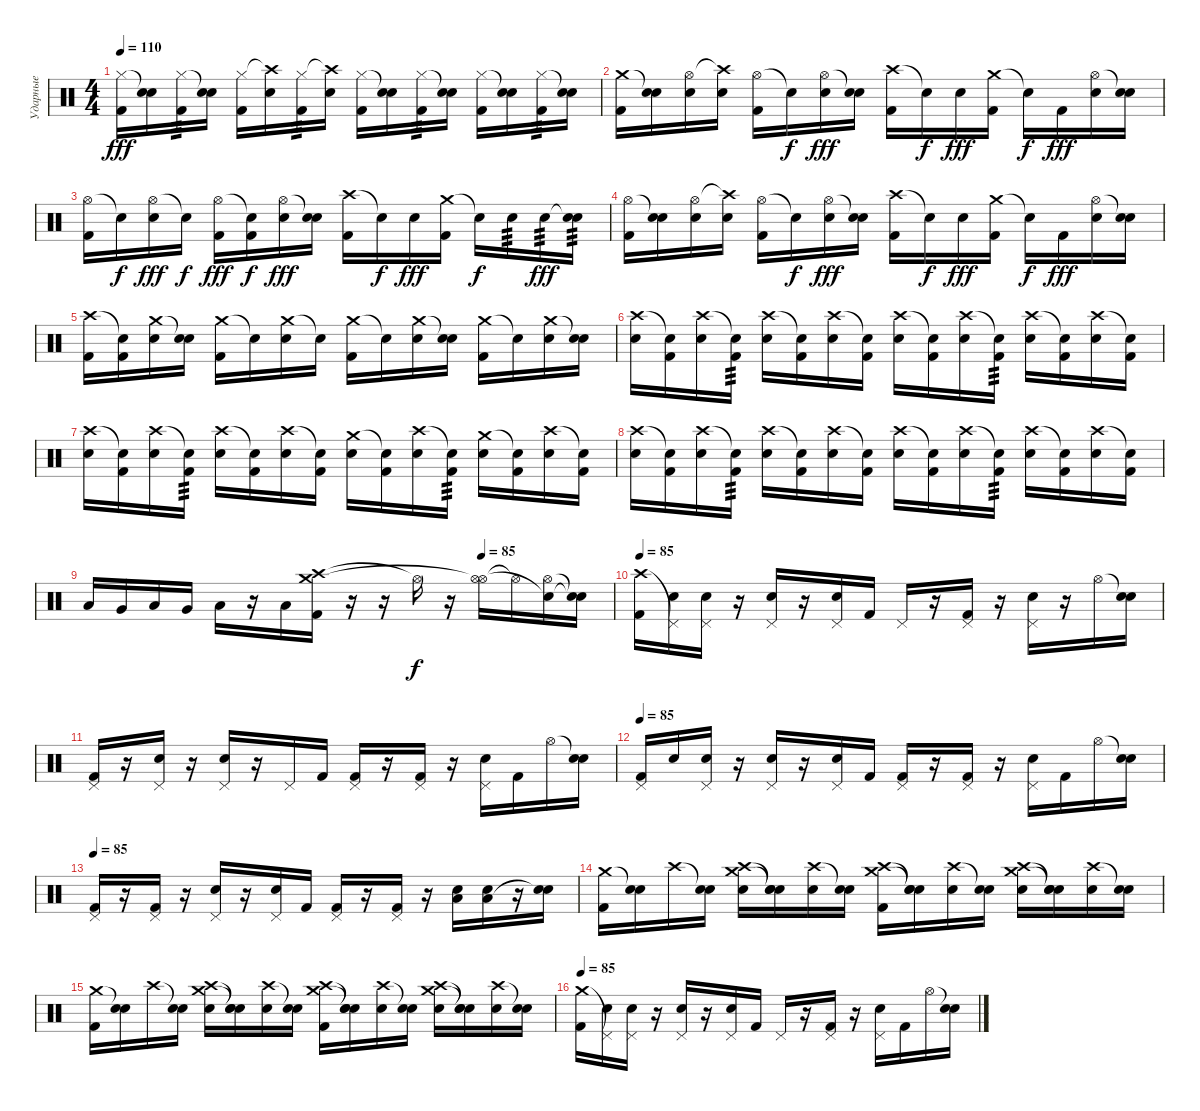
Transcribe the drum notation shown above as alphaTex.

\track ("Ударные" "Ударные") {instrument percussion}
\staff {score}
\articulation defaults
\ts (4 4)
\tempo 110
\clef neutral
\ks c
("Hi-Hat (closed)" "Kick (hit) 2").16{dy fff} ("Snare (hit)"{t} "Electric Snare (hit)").16 ("Hi-Hat (closed)" "Kick (hit) 2").16{tp 3} ("Snare (hit)"{t} "Electric Snare (hit)").16 ("Hi-Hat (closed)" "Kick (hit) 2").16 ("Crash high (hit)"{t} "Electric Snare (hit)").16 ("Hi-Hat (closed)" "Kick (hit) 2").16{tp 3} ("Crash high (hit)"{t} "Electric Snare (hit)").16 ("Hi-Hat (closed)" "Kick (hit) 2").16 ("Snare (hit)"{t} "Electric Snare (hit)").16 ("Hi-Hat (closed)" "Kick (hit) 2").16{tp 3} ("Snare (hit)"{t} "Electric Snare (hit)").16 ("Hi-Hat (closed)" "Kick (hit) 2").16 ("Snare (hit)"{t} "Electric Snare (hit)").16 ("Hi-Hat (closed)" "Kick (hit) 2").16{tp 3} ("Snare (hit)"{t} "Electric Snare (hit)").16 |
("Crash medium (hit)" "Kick (hit) 2").16 ("Snare (hit)"{t} "Snare (hit)").16 ("Hi-Hat (open)" "Electric Snare (hit)").16 ("Crash high (hit)"{t} "Snare (hit)").16 ("Hi-Hat (open)" "Kick (hit) 2").16 "Snare (hit)"{t}.16{dy f} ("Hi-Hat (open)" "Electric Snare (hit)").16{dy fff} ("Snare (hit)"{t} "Snare (hit)").16 ("Crash high (hit)" "Kick (hit) 2").16 "Snare (hit)"{t}.16{dy f} "Electric Snare (hit)".16{dy fff} ("Crash medium (hit)" "Kick (hit) 2").16 "Snare (hit)"{t}.16{dy f} "Kick (hit) 2".16{dy fff} ("Hi-Hat (open)" "Electric Snare (hit)").16 ("Snare (hit)"{t} "Snare (hit)").16 |
("Hi-Hat (open)" "Kick (hit) 2").16 "Snare (hit)"{t}.16{dy f} ("Hi-Hat (open)" "Electric Snare (hit)").16{dy fff} "Snare (hit)"{t}.16{dy f} ("Hi-Hat (open)" "Kick (hit) 2").16{dy fff} ("Snare (hit)"{t} "Kick (hit) 2").16{dy f} ("Hi-Hat (open)" "Electric Snare (hit)").16{dy fff} ("Snare (hit)"{t} "Snare (hit)").16 ("Crash high (hit)" "Kick (hit) 2").16 "Snare (hit)"{t}.16{dy f} "Electric Snare (hit)".16{dy fff} ("Crash medium (hit)" "Kick (hit) 2").16 "Snare (hit)"{t}.16{dy f} "Electric Snare (hit)".16{tp 3} "Electric Snare (hit)".16{tp 3 dy fff} ("Snare (hit)"{t} "Electric Snare (hit)").16{tp 3} |
("Hi-Hat (open)" "Kick (hit) 2").16 ("Snare (hit)"{t} "Snare (hit)").16 ("Hi-Hat (open)" "Electric Snare (hit)").16 ("Crash high (hit)"{t} "Snare (hit)").16 ("Hi-Hat (open)" "Kick (hit) 2").16 "Snare (hit)"{t}.16{dy f} ("Hi-Hat (open)" "Electric Snare (hit)").16{dy fff} ("Snare (hit)"{t} "Snare (hit)").16 ("Crash high (hit)" "Kick (hit) 2").16 "Snare (hit)"{t}.16{dy f} "Electric Snare (hit)".16{dy fff} ("Crash medium (hit)" "Kick (hit) 2").16 "Snare (hit)"{t}.16{dy f} "Kick (hit) 2".16{dy fff} ("Hi-Hat (open)" "Electric Snare (hit)").16 ("Snare (hit)"{t} "Snare (hit)").16 |
("Crash high (hit)" "Kick (hit) 2").16 ("Snare (hit)"{t} "Kick (hit) 2").16 ("Crash medium (hit)" "Electric Snare (hit)").16 ("Snare (hit)"{t} "Electric Snare (hit)").16 ("Crash medium (hit)" "Kick (hit) 2").16 "Snare (hit)"{t}.16 ("Crash medium (hit)" "Electric Snare (hit)").16 "Snare (hit)"{t}.16 ("Crash medium (hit)" "Kick (hit) 2").16 "Snare (hit)"{t}.16 ("Crash medium (hit)" "Electric Snare (hit)").16 ("Snare (hit)"{t} "Electric Snare (hit)").16 ("Crash medium (hit)" "Kick (hit) 2").16 "Snare (hit)"{t}.16 ("Crash medium (hit)" "Electric Snare (hit)").16 ("Snare (hit)"{t} "Snare (hit)").16 |
("Crash high (hit)" "Electric Snare (hit)").16 ("Snare (hit)"{t} "Kick (hit) 2").16 ("Crash high (hit)" "Electric Snare (hit)").16 ("Snare (hit)"{t} "Kick (hit) 2").16{tp 3} ("Crash high (hit)" "Electric Snare (hit)").16 ("Snare (hit)"{t} "Kick (hit) 2").16 ("Crash high (hit)" "Electric Snare (hit)").16 ("Snare (hit)"{t} "Kick (hit) 2").16 ("Crash high (hit)" "Electric Snare (hit)").16 ("Snare (hit)"{t} "Kick (hit) 2").16 ("Crash high (hit)" "Electric Snare (hit)").16 ("Snare (hit)"{t} "Kick (hit) 2").16{tp 3} ("Crash high (hit)" "Electric Snare (hit)").16 ("Snare (hit)"{t} "Kick (hit) 2").16 ("Crash high (hit)" "Electric Snare (hit)").16 ("Snare (hit)"{t} "Kick (hit) 2").16 |
("Crash high (hit)" "Electric Snare (hit)").16 ("Snare (hit)"{t} "Kick (hit) 2").16 ("Crash high (hit)" "Electric Snare (hit)").16 ("Snare (hit)"{t} "Kick (hit) 2").16{tp 3} ("Crash high (hit)" "Electric Snare (hit)").16 ("Snare (hit)"{t} "Kick (hit) 2").16 ("Crash high (hit)" "Electric Snare (hit)").16 ("Snare (hit)"{t} "Kick (hit) 2").16 ("Crash medium (hit)" "Electric Snare (hit)").16 ("Snare (hit)"{t} "Kick (hit) 2").16 ("Crash high (hit)" "Electric Snare (hit)").16 ("Snare (hit)"{t} "Kick (hit) 2").16{tp 3} ("Crash medium (hit)" "Electric Snare (hit)").16 ("Snare (hit)"{t} "Kick (hit) 2").16 ("Crash high (hit)" "Electric Snare (hit)").16 ("Snare (hit)"{t} "Kick (hit) 2").16 |
("Crash high (hit)" "Electric Snare (hit)").16 ("Snare (hit)"{t} "Kick (hit) 2").16 ("Crash high (hit)" "Electric Snare (hit)").16 ("Snare (hit)"{t} "Kick (hit) 2").16{tp 3} ("Crash high (hit)" "Electric Snare (hit)").16 ("Snare (hit)"{t} "Kick (hit) 2").16 ("Crash high (hit)" "Electric Snare (hit)").16 ("Snare (hit)"{t} "Kick (hit) 2").16 ("Crash high (hit)" "Electric Snare (hit)").16 ("Snare (hit)"{t} "Kick (hit) 2").16 ("Crash high (hit)" "Electric Snare (hit)").16 ("Snare (hit)"{t} "Kick (hit) 2").16{tp 3} ("Crash high (hit)" "Electric Snare (hit)").16 ("Snare (hit)"{t} "Kick (hit) 2").16 ("Crash high (hit)" "Electric Snare (hit)").16 ("Snare (hit)"{t} "Kick (hit) 2").16 |
\tempo (85 0.75)
"Low Tom (hit)".16 "Very Low Tom (hit)".16 "Low Floor Tom (hit)".16 "Very Low Tom (hit)".16 "Low Floor Tom (hit)".16 r.16 "Low Floor Tom (hit)".16 ("Crash high (hit)" "Crash medium (hit)" "Kick (hit) 2").16 r.16 r.16 "Hi-Hat (open)"{t}.16{dy f} r.16 ("Hi-Hat (open)" "Hi-Hat (open)"{t}).16 "Hi-Hat (open)"{t}.16 ("Hi-Hat (open)" "Snare (hit)"{t}).16 ("Snare (hit)"{t} "Snare (hit)"{t}).16 |
\tempo 85
("Crash high (hit)" "Kick (hit) 2").16 ("Pedal Hi-Hat (hit)"{t} "Snare (hit)").16 ("Pedal Hi-Hat (hit)" "Snare (hit)").16 r.16 ("Pedal Hi-Hat (hit)" "Electric Snare (hit)").16 r.16 ("Pedal Hi-Hat (hit)" "Snare (hit)").16 "Kick (hit) 2".16 "Pedal Hi-Hat (hit)".16 r.16 ("Pedal Hi-Hat (hit)" "Kick (hit) 2").16 r.16 ("Pedal Hi-Hat (hit)" "Electric Snare (hit)").16 r.16 "Hi-Hat (open)".16 ("Snare (hit)"{t} "Snare (hit)").16 |
("Pedal Hi-Hat (hit)" "Kick (hit) 2").16 r.16 ("Pedal Hi-Hat (hit)" "Snare (hit)").16 r.16 ("Pedal Hi-Hat (hit)" "Electric Snare (hit)").16 r.16 "Pedal Hi-Hat (hit)".16 "Kick (hit) 2".16 ("Pedal Hi-Hat (hit)" "Kick (hit) 2").16 r.16 ("Pedal Hi-Hat (hit)" "Kick (hit) 2").16 r.16 ("Pedal Hi-Hat (hit)" "Electric Snare (hit)").16 "Kick (hit) 2".16 "Hi-Hat (open)".16 ("Snare (hit)"{t} "Snare (hit)").16 |
\tempo 85
("Pedal Hi-Hat (hit)" "Kick (hit) 2").16 "Snare (hit)".16 ("Pedal Hi-Hat (hit)" "Snare (hit)").16 r.16 ("Pedal Hi-Hat (hit)" "Electric Snare (hit)").16 r.16 ("Pedal Hi-Hat (hit)" "Snare (hit)").16 "Kick (hit) 2".16 ("Pedal Hi-Hat (hit)" "Kick (hit) 2").16 r.16 ("Pedal Hi-Hat (hit)" "Kick (hit) 2").16 r.16 ("Pedal Hi-Hat (hit)" "Electric Snare (hit)").16 "Kick (hit) 2".16 "Hi-Hat (open)".16 ("Snare (hit)"{t} "Snare (hit)").16 |
\tempo 85
("Pedal Hi-Hat (hit)" "Kick (hit) 2").16 r.16 ("Pedal Hi-Hat (hit)" "Kick (hit) 2").16 r.16 ("Pedal Hi-Hat (hit)" "Electric Snare (hit)").16 r.16 ("Pedal Hi-Hat (hit)" "Snare (hit)").16 "Kick (hit) 2".16 ("Pedal Hi-Hat (hit)" "Kick (hit) 2").16 r.16 ("Pedal Hi-Hat (hit)" "Kick (hit) 2").16 r.16 ("Low Tom (hit)" "Electric Snare (hit)").16 ("Low Tom (hit)" "Electric Snare (hit)").16 r.16 ("Snare (hit)"{t} "Snare (hit)").16 |
("Crash medium (hit)" "Kick (hit) 2").16 ("Snare (hit)"{t} "Snare (hit)").16 "Crash high (hit)".16 ("Snare (hit)"{t} "Snare (hit)").16 ("Crash medium (hit)" "Crash high (hit)" "Electric Snare (hit)").16 ("Snare (hit)"{t} "Snare (hit)"{t} "Snare (hit)").16 ("Crash high (hit)" "Snare (hit)").16 ("Snare (hit)"{t} "Snare (hit)").16 ("Crash medium (hit)" "Crash high (hit)" "Kick (hit) 2").16 ("Snare (hit)"{t} "Snare (hit)"{t} "Snare (hit)").16 ("Crash high (hit)" "Snare (hit)").16 ("Snare (hit)"{t} "Snare (hit)").16 ("Crash medium (hit)" "Crash high (hit)" "Electric Snare (hit)").16 ("Snare (hit)"{t} "Snare (hit)"{t} "Snare (hit)").16 ("Crash high (hit)" "Snare (hit)").16 ("Snare (hit)"{t} "Snare (hit)").16 |
("Crash medium (hit)" "Kick (hit) 2").16 ("Snare (hit)"{t} "Snare (hit)").16 "Crash high (hit)".16 ("Snare (hit)"{t} "Snare (hit)").16 ("Crash medium (hit)" "Crash high (hit)" "Electric Snare (hit)").16 ("Snare (hit)"{t} "Snare (hit)"{t} "Snare (hit)").16 ("Crash high (hit)" "Snare (hit)").16 ("Snare (hit)"{t} "Snare (hit)").16 ("Crash medium (hit)" "Crash high (hit)" "Kick (hit) 2").16 ("Snare (hit)"{t} "Snare (hit)"{t} "Snare (hit)").16 ("Crash high (hit)" "Snare (hit)").16 ("Snare (hit)"{t} "Snare (hit)").16 ("Crash medium (hit)" "Crash high (hit)" "Electric Snare (hit)").16 ("Snare (hit)"{t} "Snare (hit)"{t} "Snare (hit)").16 ("Crash high (hit)" "Snare (hit)").16 ("Snare (hit)"{t} "Snare (hit)").16 |
\tempo 85
("Crash medium (hit)" "Kick (hit) 2").16 ("Pedal Hi-Hat (hit)"{t} "Snare (hit)").16 ("Pedal Hi-Hat (hit)" "Snare (hit)").16 r.16 ("Pedal Hi-Hat (hit)" "Electric Snare (hit)").16 r.16 ("Pedal Hi-Hat (hit)" "Snare (hit)").16 "Kick (hit) 2".16 "Pedal Hi-Hat (hit)".16 r.16 ("Pedal Hi-Hat (hit)" "Kick (hit) 2").16 r.16 ("Pedal Hi-Hat (hit)" "Electric Snare (hit)").16 "Kick (hit) 2".16 "Hi-Hat (open)".16 ("Snare (hit)"{t} "Snare (hit)").16
